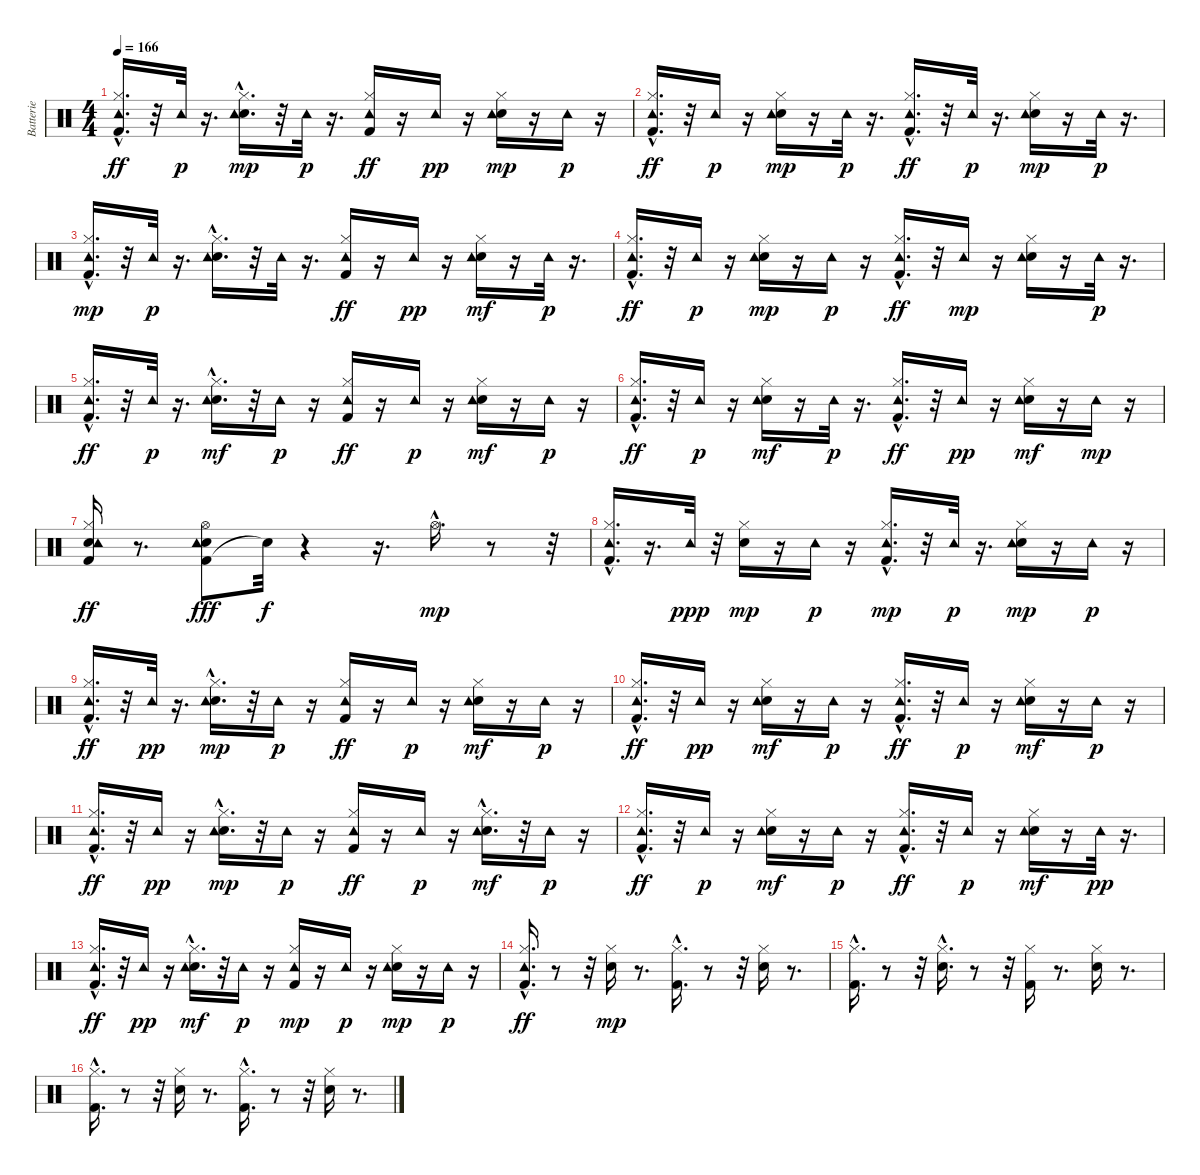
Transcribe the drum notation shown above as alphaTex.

\track ("Batterie" "Batterie") {instrument percussion}
\staff {score}
\articulation defaults
\ts (4 4)
\tempo 166
\clef neutral
\ks c
("Kick (hit) 2"{hac} "Hi-Hat (closed)" "Tambourine (hit)").16{d dy ff} r.32 "Tambourine (hit)".32{dy p} r.16{d} ("Electric Snare (hit)" "Hi-Hat (closed)"{hac} "Tambourine (hit)").16{d dy mp} r.32 "Tambourine (hit)".32{dy p} r.16{d} ("Kick (hit) 2" "Hi-Hat (closed)" "Tambourine (hit)").16{dy ff} r.16 "Tambourine (hit)".16{dy pp} r.16 ("Electric Snare (hit)" "Hi-Hat (closed)" "Tambourine (hit)").16{dy mp} r.16 "Tambourine (hit)".16{dy p} r.16 |
("Kick (hit) 2"{hac} "Hi-Hat (closed)"{hac} "Tambourine (hit)").16{d dy ff} r.32 "Tambourine (hit)".16{dy p} r.16 ("Electric Snare (hit)" "Hi-Hat (closed)" "Tambourine (hit)").16{dy mp} r.16 "Tambourine (hit)".32{dy p} r.16{d} ("Kick (hit) 2"{hac} "Hi-Hat (closed)" "Tambourine (hit)").16{d dy ff} r.32 "Tambourine (hit)".32{dy p} r.16{d} ("Electric Snare (hit)" "Hi-Hat (closed)" "Tambourine (hit)").16{dy mp} r.16 "Tambourine (hit)".32{dy p} r.16{d} |
("Kick (hit) 2"{hac} "Hi-Hat (closed)" "Tambourine (hit)").16{d dy mp} r.32 "Tambourine (hit)".32{dy p} r.16{d} ("Electric Snare (hit)" "Hi-Hat (closed)"{hac} "Tambourine (hit)").16{d} r.32 "Tambourine (hit)".32 r.16{d} ("Kick (hit) 2" "Hi-Hat (closed)" "Tambourine (hit)").16{dy ff} r.16 "Tambourine (hit)".16{dy pp} r.16 ("Electric Snare (hit)" "Hi-Hat (closed)" "Tambourine (hit)").16{dy mf} r.16 "Tambourine (hit)".32{dy p} r.16{d} |
("Kick (hit) 2"{hac} "Hi-Hat (closed)"{hac} "Tambourine (hit)").16{d dy ff} r.32 "Tambourine (hit)".16{dy p} r.16 ("Electric Snare (hit)" "Hi-Hat (closed)" "Tambourine (hit)").16{dy mp} r.16 "Tambourine (hit)".16{dy p} r.16 ("Kick (hit) 2"{hac} "Hi-Hat (closed)" "Tambourine (hit)").16{d dy ff} r.32 "Tambourine (hit)".16{dy mp} r.16 ("Electric Snare (hit)" "Hi-Hat (closed)" "Tambourine (hit)").16 r.16 "Tambourine (hit)".32{dy p} r.16{d} |
("Kick (hit) 2"{hac} "Hi-Hat (closed)" "Tambourine (hit)").16{d dy ff} r.32 "Tambourine (hit)".32{dy p} r.16{d} ("Electric Snare (hit)" "Hi-Hat (closed)"{hac} "Tambourine (hit)").16{d dy mf} r.32 "Tambourine (hit)".16{dy p} r.16 ("Kick (hit) 2" "Hi-Hat (closed)" "Tambourine (hit)").16{dy ff} r.16 "Tambourine (hit)".16{dy p} r.16 ("Electric Snare (hit)" "Hi-Hat (closed)" "Tambourine (hit)").16{dy mf} r.16 "Tambourine (hit)".16{dy p} r.16 |
("Kick (hit) 2"{hac} "Hi-Hat (closed)"{hac} "Tambourine (hit)").16{d dy ff} r.32 "Tambourine (hit)".16{dy p} r.16 ("Electric Snare (hit)" "Hi-Hat (closed)" "Tambourine (hit)").16{dy mf} r.16 "Tambourine (hit)".32{dy p} r.16{d} ("Kick (hit) 2"{hac} "Hi-Hat (closed)" "Tambourine (hit)").16{d dy ff} r.32 "Tambourine (hit)".16{dy pp} r.16 ("Electric Snare (hit)" "Hi-Hat (closed)" "Tambourine (hit)").16{dy mf} r.16 "Tambourine (hit)".16{dy mp} r.16 |
("Kick (hit) 2" "Electric Snare (hit)" "Hi-Hat (closed)" "Tambourine (hit)").16{dy ff} r.8{d} ("Kick (hit) 2" "Electric Snare (hit)" "Hi-Hat (open)" "Tambourine (hit)").8{dy fff} "Snare (hit)"{t}.32{dy f} r.4 r.16{d} "Hi-Hat (open)"{hac}.16{d dy mp} r.8 r.32 |
("Kick (hit) 2"{hac} "Hi-Hat (closed)"{hac} "Tambourine (hit)").16{d} r.16{d} "Tambourine (hit)".32{dy ppp} r.32 ("Electric Snare (hit)" "Hi-Hat (closed)").16{dy mp} r.16 "Tambourine (hit)".16{dy p} r.16 ("Kick (hit) 2"{hac} "Hi-Hat (closed)" "Tambourine (hit)").16{d dy mp} r.32 "Tambourine (hit)".32{dy p} r.16{d} ("Electric Snare (hit)" "Hi-Hat (closed)" "Tambourine (hit)").16{dy mp} r.16 "Tambourine (hit)".16{dy p} r.16 |
("Kick (hit) 2"{hac} "Hi-Hat (closed)" "Tambourine (hit)").16{d dy ff} r.32 "Tambourine (hit)".32{dy pp} r.16{d} ("Electric Snare (hit)" "Hi-Hat (closed)"{hac} "Tambourine (hit)").16{d dy mp} r.32 "Tambourine (hit)".16{dy p} r.16 ("Kick (hit) 2" "Hi-Hat (closed)" "Tambourine (hit)").16{dy ff} r.16 "Tambourine (hit)".16{dy p} r.16 ("Electric Snare (hit)" "Hi-Hat (closed)" "Tambourine (hit)").16{dy mf} r.16 "Tambourine (hit)".16{dy p} r.16 |
("Kick (hit) 2"{hac} "Hi-Hat (closed)"{hac} "Tambourine (hit)").16{d dy ff} r.32 "Tambourine (hit)".16{dy pp} r.16 ("Electric Snare (hit)" "Hi-Hat (closed)" "Tambourine (hit)").16{dy mf} r.16 "Tambourine (hit)".16{dy p} r.16 ("Kick (hit) 2"{hac} "Hi-Hat (closed)" "Tambourine (hit)").16{d dy ff} r.32 "Tambourine (hit)".16{dy p} r.16 ("Electric Snare (hit)" "Hi-Hat (closed)" "Tambourine (hit)").16{dy mf} r.16 "Tambourine (hit)".16{dy p} r.16 |
("Kick (hit) 2"{hac} "Hi-Hat (closed)" "Tambourine (hit)").16{d dy ff} r.32 "Tambourine (hit)".16{dy pp} r.16 ("Electric Snare (hit)" "Hi-Hat (closed)"{hac} "Tambourine (hit)").16{d dy mp} r.32 "Tambourine (hit)".16{dy p} r.16 ("Kick (hit) 2" "Hi-Hat (closed)" "Tambourine (hit)").16{dy ff} r.16 "Tambourine (hit)".16{dy p} r.16 ("Electric Snare (hit)"{hac} "Hi-Hat (closed)" "Tambourine (hit)").16{d dy mf} r.32 "Tambourine (hit)".16{dy p} r.16 |
("Kick (hit) 2"{hac} "Hi-Hat (closed)"{hac} "Tambourine (hit)").16{d dy ff} r.32 "Tambourine (hit)".16{dy p} r.16 ("Electric Snare (hit)" "Hi-Hat (closed)" "Tambourine (hit)").16{dy mf} r.16 "Tambourine (hit)".16{dy p} r.16 ("Kick (hit) 2"{hac} "Hi-Hat (closed)" "Tambourine (hit)").16{d dy ff} r.32 "Tambourine (hit)".16{dy p} r.16 ("Electric Snare (hit)" "Hi-Hat (closed)" "Tambourine (hit)").16{dy mf} r.16 "Tambourine (hit)".32{dy pp} r.16{d} |
("Kick (hit) 2"{hac} "Hi-Hat (closed)" "Tambourine (hit)").16{d dy ff} r.32 "Tambourine (hit)".16{dy pp} r.16 ("Electric Snare (hit)" "Hi-Hat (closed)"{hac} "Tambourine (hit)").16{d dy mf} r.32 "Tambourine (hit)".16{dy p} r.16 ("Kick (hit) 2" "Hi-Hat (closed)" "Tambourine (hit)").16{dy mp} r.16 "Tambourine (hit)".16{dy p} r.16 ("Electric Snare (hit)" "Hi-Hat (closed)" "Tambourine (hit)").16{dy mp} r.16 "Tambourine (hit)".16{dy p} r.16 |
("Kick (hit) 2"{hac} "Hi-Hat (closed)"{hac} "Tambourine (hit)").16{d dy ff} r.8 r.32 ("Electric Snare (hit)" "Hi-Hat (closed)").16{dy mp} r.8{d} ("Kick (hit) 2"{hac} "Hi-Hat (closed)").16{d} r.8 r.32 ("Electric Snare (hit)" "Hi-Hat (closed)").16 r.8{d} |
("Kick (hit) 2"{hac} "Hi-Hat (closed)").16{d} r.8 r.32 ("Electric Snare (hit)" "Hi-Hat (closed)"{hac}).16{d} r.8 r.32 ("Kick (hit) 2" "Hi-Hat (closed)").16 r.8{d} ("Electric Snare (hit)" "Hi-Hat (closed)").16 r.8{d} |
("Kick (hit) 2"{hac} "Hi-Hat (closed)"{hac}).16{d} r.8 r.32 ("Electric Snare (hit)" "Hi-Hat (closed)").16 r.8{d} ("Kick (hit) 2"{hac} "Hi-Hat (closed)").16{d} r.8 r.32 ("Electric Snare (hit)" "Hi-Hat (closed)").16 r.8{d}
